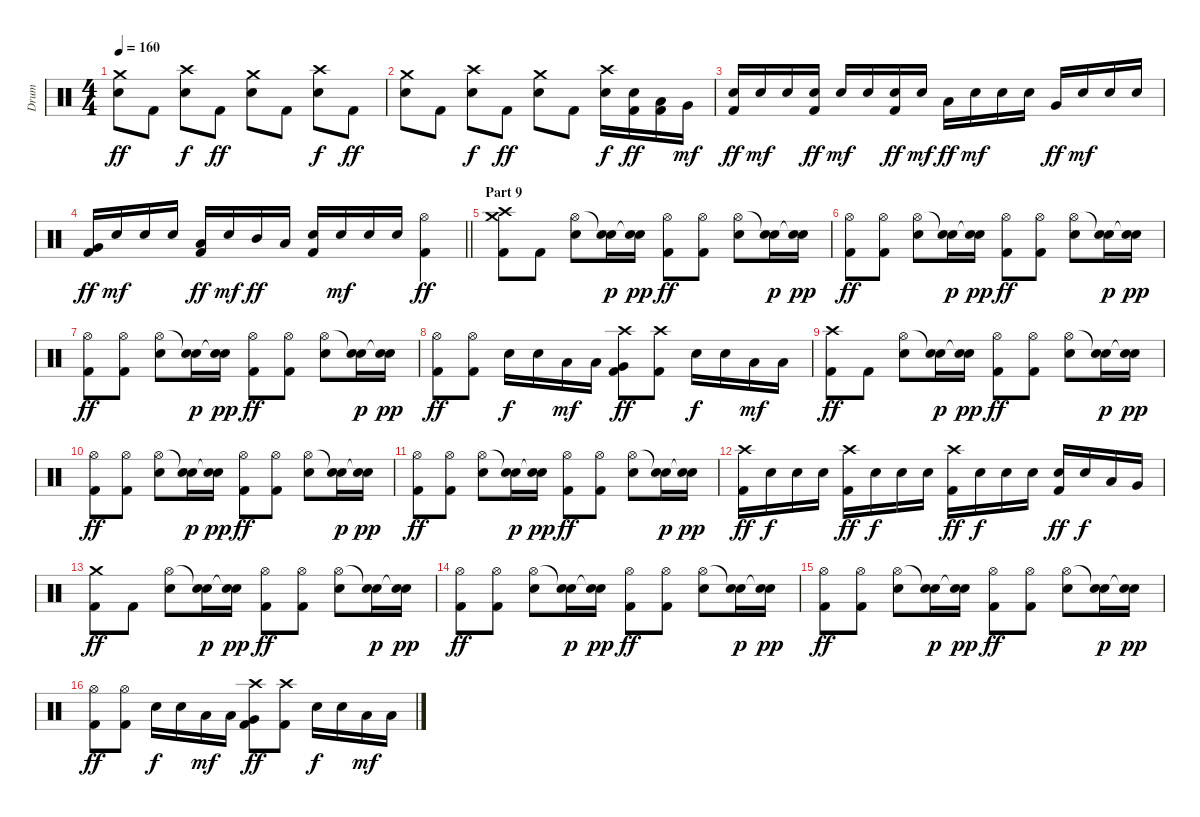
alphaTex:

\track ("Drum" "Drum") {instrument percussion}
\staff {score}
\articulation defaults
\ts (4 4)
\tempo 160
\clef neutral
\ks c
("Crash medium (hit)" "Electric Snare (hit)").8{dy ff} "Kick (hit) 2".8 ("Crash high (hit)" "Electric Snare (hit)").8{dy f} "Kick (hit) 2".8{dy ff} ("Crash medium (hit)" "Electric Snare (hit)").8 "Kick (hit) 2".8 ("Crash high (hit)" "Electric Snare (hit)").8{dy f} "Kick (hit) 2".8{dy ff} |
("Crash medium (hit)" "Electric Snare (hit)").8 "Kick (hit) 2".8 ("Crash high (hit)" "Electric Snare (hit)").8{dy f} "Kick (hit) 2".8{dy ff} ("Crash medium (hit)" "Electric Snare (hit)").8 "Kick (hit) 2".8 ("Crash high (hit)" "Electric Snare (hit)").16{dy f} ("Electric Snare (hit)" "Kick (hit) 2").16{dy ff} ("Low Tom (hit)" "Kick (hit) 2").16 "Very Low Tom (hit)".16{dy mf} |
("Electric Snare (hit)" "Kick (hit) 2").16{dy ff} "Electric Snare (hit)".16{dy mf} "Electric Snare (hit)".16 ("Electric Snare (hit)" "Kick (hit) 2").16{dy ff} "Electric Snare (hit)".16{dy mf} "Electric Snare (hit)".16 ("Electric Snare (hit)" "Kick (hit) 2").16{dy ff} "Electric Snare (hit)".16{dy mf} "Low Tom (hit)".16{dy ff} "Electric Snare (hit)".16{dy mf} "Electric Snare (hit)".16 "Electric Snare (hit)".16 "Very Low Tom (hit)".16{dy ff} "Electric Snare (hit)".16{dy mf} "Electric Snare (hit)".16 "Electric Snare (hit)".16 |
\barLineRight lightlight
("Very Low Tom (hit)" "Kick (hit) 2").16{dy ff} "Electric Snare (hit)".16{dy mf} "Electric Snare (hit)".16 "Electric Snare (hit)".16 ("Low Tom (hit)" "Kick (hit) 2").16{dy ff} "Electric Snare (hit)".16{dy mf} "Mid Tom (hit)".16{dy ff} "Low Tom (hit)".16 ("Electric Snare (hit)" "Kick (hit) 2").16 "Electric Snare (hit)".16{dy mf} "Electric Snare (hit)".16 "Electric Snare (hit)".16 ("Hi-Hat (open)" "Kick (hit) 2").4{dy ff} |
\section ("" "Part 9")
("Crash high (hit)" "Crash medium (hit)" "Kick (hit) 2").8 "Kick (hit) 2".8 ("Electric Snare (hit)" "Hi-Hat (open)").8 ("Electric Snare (hit)" "Snare (hit)"{t}).16{dy p} ("Electric Snare (hit)" "Snare (hit)"{t}).16{dy pp} ("Hi-Hat (open)" "Kick (hit) 2").8{dy ff} ("Hi-Hat (open)" "Kick (hit) 2").8 ("Electric Snare (hit)" "Hi-Hat (open)").8 ("Electric Snare (hit)" "Snare (hit)"{t}).16{dy p} ("Electric Snare (hit)" "Snare (hit)"{t}).16{dy pp} |
("Hi-Hat (open)" "Kick (hit) 2").8{dy ff} ("Hi-Hat (open)" "Kick (hit) 2").8 ("Electric Snare (hit)" "Hi-Hat (open)").8 ("Electric Snare (hit)" "Snare (hit)"{t}).16{dy p} ("Electric Snare (hit)" "Snare (hit)"{t}).16{dy pp} ("Hi-Hat (open)" "Kick (hit) 2").8{dy ff} ("Hi-Hat (open)" "Kick (hit) 2").8 ("Electric Snare (hit)" "Hi-Hat (open)").8 ("Electric Snare (hit)" "Snare (hit)"{t}).16{dy p} ("Electric Snare (hit)" "Snare (hit)"{t}).16{dy pp} |
("Hi-Hat (open)" "Kick (hit) 2").8{dy ff} ("Hi-Hat (open)" "Kick (hit) 2").8 ("Electric Snare (hit)" "Hi-Hat (open)").8 ("Electric Snare (hit)" "Snare (hit)"{t}).16{dy p} ("Electric Snare (hit)" "Snare (hit)"{t}).16{dy pp} ("Hi-Hat (open)" "Kick (hit) 2").8{dy ff} ("Hi-Hat (open)" "Kick (hit) 2").8 ("Electric Snare (hit)" "Hi-Hat (open)").8 ("Electric Snare (hit)" "Snare (hit)"{t}).16{dy p} ("Electric Snare (hit)" "Snare (hit)"{t}).16{dy pp} |
("Hi-Hat (open)" "Kick (hit) 2").8{dy ff} ("Hi-Hat (open)" "Kick (hit) 2").8 "Electric Snare (hit)".16{dy f} "Electric Snare (hit)".16 "Low Tom (hit)".16{dy mf} "Low Tom (hit)".16 ("Crash high (hit)" "Very Low Tom (hit)" "Kick (hit) 2").8{dy ff} ("Crash high (hit)" "Kick (hit) 2").8 "Electric Snare (hit)".16{dy f} "Electric Snare (hit)".16 "Low Tom (hit)".16{dy mf} "Low Tom (hit)".16 |
("Crash high (hit)" "Kick (hit) 2").8{dy ff} "Kick (hit) 2".8 ("Electric Snare (hit)" "Hi-Hat (open)").8 ("Electric Snare (hit)" "Snare (hit)"{t}).16{dy p} ("Electric Snare (hit)" "Snare (hit)"{t}).16{dy pp} ("Hi-Hat (open)" "Kick (hit) 2").8{dy ff} ("Hi-Hat (open)" "Kick (hit) 2").8 ("Electric Snare (hit)" "Hi-Hat (open)").8 ("Electric Snare (hit)" "Snare (hit)"{t}).16{dy p} ("Electric Snare (hit)" "Snare (hit)"{t}).16{dy pp} |
("Hi-Hat (open)" "Kick (hit) 2").8{dy ff} ("Hi-Hat (open)" "Kick (hit) 2").8 ("Electric Snare (hit)" "Hi-Hat (open)").8 ("Electric Snare (hit)" "Snare (hit)"{t}).16{dy p} ("Electric Snare (hit)" "Snare (hit)"{t}).16{dy pp} ("Hi-Hat (open)" "Kick (hit) 2").8{dy ff} ("Hi-Hat (open)" "Kick (hit) 2").8 ("Electric Snare (hit)" "Hi-Hat (open)").8 ("Electric Snare (hit)" "Snare (hit)"{t}).16{dy p} ("Electric Snare (hit)" "Snare (hit)"{t}).16{dy pp} |
("Hi-Hat (open)" "Kick (hit) 2").8{dy ff} ("Hi-Hat (open)" "Kick (hit) 2").8 ("Electric Snare (hit)" "Hi-Hat (open)").8 ("Electric Snare (hit)" "Snare (hit)"{t}).16{dy p} ("Electric Snare (hit)" "Snare (hit)"{t}).16{dy pp} ("Hi-Hat (open)" "Kick (hit) 2").8{dy ff} ("Hi-Hat (open)" "Kick (hit) 2").8 ("Electric Snare (hit)" "Hi-Hat (open)").8 ("Electric Snare (hit)" "Snare (hit)"{t}).16{dy p} ("Electric Snare (hit)" "Snare (hit)"{t}).16{dy pp} |
("Crash high (hit)" "Kick (hit) 2").16{dy ff} "Electric Snare (hit)".16{dy f} "Electric Snare (hit)".16 "Electric Snare (hit)".16 ("Crash high (hit)" "Kick (hit) 2").16{dy ff} "Electric Snare (hit)".16{dy f} "Electric Snare (hit)".16 "Electric Snare (hit)".16 ("Crash high (hit)" "Kick (hit) 2").16{dy ff} "Electric Snare (hit)".16{dy f} "Electric Snare (hit)".16 "Electric Snare (hit)".16 ("Electric Snare (hit)" "Kick (hit) 2").16{dy ff} "Electric Snare (hit)".16{dy f} "Low Tom (hit)".16 "Very Low Tom (hit)".16 |
("Crash medium (hit)" "Kick (hit) 2").8{dy ff} "Kick (hit) 2".8 ("Electric Snare (hit)" "Hi-Hat (open)").8 ("Electric Snare (hit)" "Snare (hit)"{t}).16{dy p} ("Electric Snare (hit)" "Snare (hit)"{t}).16{dy pp} ("Hi-Hat (open)" "Kick (hit) 2").8{dy ff} ("Hi-Hat (open)" "Kick (hit) 2").8 ("Electric Snare (hit)" "Hi-Hat (open)").8 ("Electric Snare (hit)" "Snare (hit)"{t}).16{dy p} ("Electric Snare (hit)" "Snare (hit)"{t}).16{dy pp} |
("Hi-Hat (open)" "Kick (hit) 2").8{dy ff} ("Hi-Hat (open)" "Kick (hit) 2").8 ("Electric Snare (hit)" "Hi-Hat (open)").8 ("Electric Snare (hit)" "Snare (hit)"{t}).16{dy p} ("Electric Snare (hit)" "Snare (hit)"{t}).16{dy pp} ("Hi-Hat (open)" "Kick (hit) 2").8{dy ff} ("Hi-Hat (open)" "Kick (hit) 2").8 ("Electric Snare (hit)" "Hi-Hat (open)").8 ("Electric Snare (hit)" "Snare (hit)"{t}).16{dy p} ("Electric Snare (hit)" "Snare (hit)"{t}).16{dy pp} |
("Hi-Hat (open)" "Kick (hit) 2").8{dy ff} ("Hi-Hat (open)" "Kick (hit) 2").8 ("Electric Snare (hit)" "Hi-Hat (open)").8 ("Electric Snare (hit)" "Snare (hit)"{t}).16{dy p} ("Electric Snare (hit)" "Snare (hit)"{t}).16{dy pp} ("Hi-Hat (open)" "Kick (hit) 2").8{dy ff} ("Hi-Hat (open)" "Kick (hit) 2").8 ("Electric Snare (hit)" "Hi-Hat (open)").8 ("Electric Snare (hit)" "Snare (hit)"{t}).16{dy p} ("Electric Snare (hit)" "Snare (hit)"{t}).16{dy pp} |
("Hi-Hat (open)" "Kick (hit) 2").8{dy ff} ("Hi-Hat (open)" "Kick (hit) 2").8 "Electric Snare (hit)".16{dy f} "Electric Snare (hit)".16 "Low Tom (hit)".16{dy mf} "Low Tom (hit)".16 ("Crash high (hit)" "Very Low Tom (hit)" "Kick (hit) 2").8{dy ff} ("Crash high (hit)" "Kick (hit) 2").8 "Electric Snare (hit)".16{dy f} "Electric Snare (hit)".16 "Low Tom (hit)".16{dy mf} "Low Tom (hit)".16
